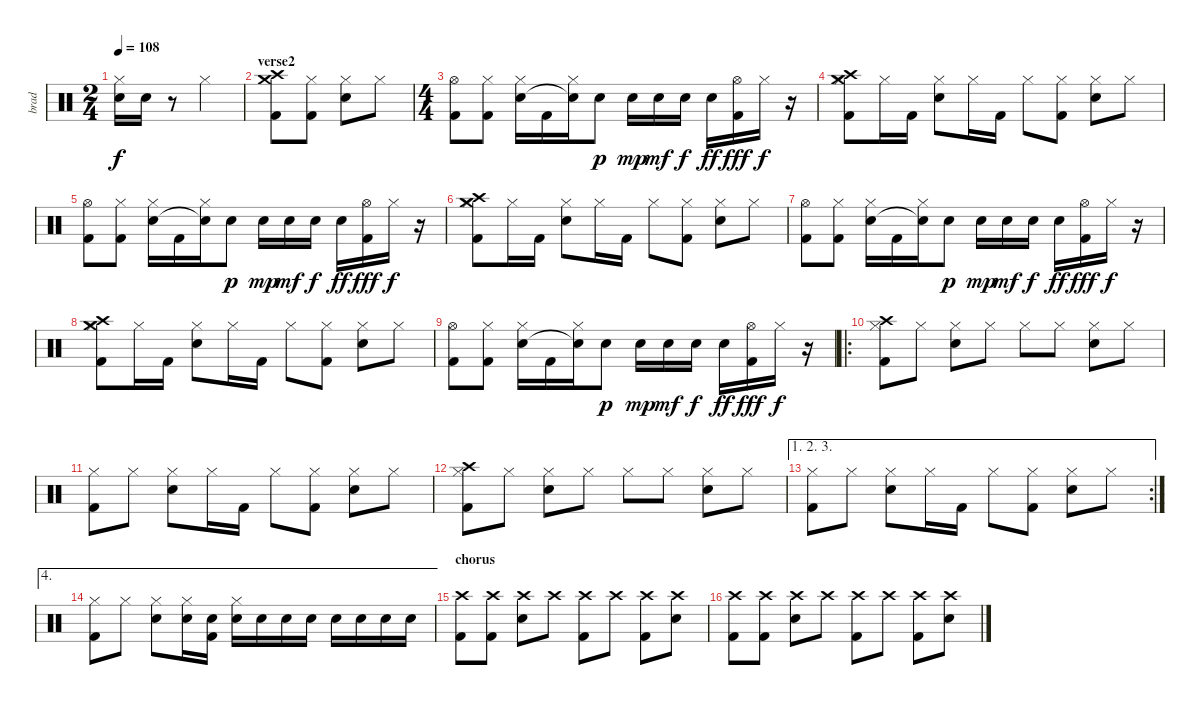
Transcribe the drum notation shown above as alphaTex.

\track ("brad" "brad") {instrument percussion}
\staff {score}
\articulation defaults
\ts (2 4)
\tempo 108
\clef neutral
\ks c
("Hi-Hat (closed)" "Electric Snare (hit)").16{dy f} "Electric Snare (hit)".16 r.8 "Hi-Hat (closed)".4 |
\section ("" "verse2")
("Crash high (hit)" "Crash medium (hit)" "Kick (hit) 2").8 ("Hi-Hat (closed)" "Kick (hit) 2").8 ("Hi-Hat (closed)" "Electric Snare (hit)").8 "Hi-Hat (closed)".8 |
\ts (4 4)
("Hi-Hat (open)" "Kick (hit) 2").8 ("Hi-Hat (closed)" "Kick (hit) 2").8 ("Hi-Hat (closed)" "Electric Snare (hit)").16 "Kick (hit) 2".16 ("Hi-Hat (closed)" "Snare (hit)"{t}).16 "Electric Snare (hit)".8{dy p} "Electric Snare (hit)".16{dy mp} "Electric Snare (hit)".16{dy mf} "Electric Snare (hit)".16{dy f} "Electric Snare (hit)".16{dy ff} ("Hi-Hat (open)" "Kick (hit) 2").16{dy fff} "Hi-Hat (closed)".16{dy f} r.16 |
("Crash medium (hit)" "Crash high (hit)" "Hi-Hat (closed)" "Kick (hit) 2").8 "Hi-Hat (closed)".16 "Kick (hit) 2".16 ("Hi-Hat (closed)" "Electric Snare (hit)").8 "Hi-Hat (closed)".16 "Kick (hit) 2".16 "Hi-Hat (closed)".8 ("Hi-Hat (closed)" "Kick (hit) 2").8 ("Hi-Hat (closed)" "Electric Snare (hit)").8 "Hi-Hat (closed)".8 |
("Hi-Hat (open)" "Kick (hit) 2").8 ("Hi-Hat (closed)" "Kick (hit) 2").8 ("Hi-Hat (closed)" "Electric Snare (hit)").16 "Kick (hit) 2".16 ("Hi-Hat (closed)" "Snare (hit)"{t}).16 "Electric Snare (hit)".8{dy p} "Electric Snare (hit)".16{dy mp} "Electric Snare (hit)".16{dy mf} "Electric Snare (hit)".16{dy f} "Electric Snare (hit)".16{dy ff} ("Hi-Hat (open)" "Kick (hit) 2").16{dy fff} "Hi-Hat (closed)".16{dy f} r.16 |
("Crash medium (hit)" "Crash high (hit)" "Hi-Hat (closed)" "Kick (hit) 2").8 "Hi-Hat (closed)".16 "Kick (hit) 2".16 ("Hi-Hat (closed)" "Electric Snare (hit)").8 "Hi-Hat (closed)".16 "Kick (hit) 2".16 "Hi-Hat (closed)".8 ("Hi-Hat (closed)" "Kick (hit) 2").8 ("Hi-Hat (closed)" "Electric Snare (hit)").8 "Hi-Hat (closed)".8 |
("Hi-Hat (open)" "Kick (hit) 2").8 ("Hi-Hat (closed)" "Kick (hit) 2").8 ("Hi-Hat (closed)" "Electric Snare (hit)").16 "Kick (hit) 2".16 ("Hi-Hat (closed)" "Snare (hit)"{t}).16 "Electric Snare (hit)".8{dy p} "Electric Snare (hit)".16{dy mp} "Electric Snare (hit)".16{dy mf} "Electric Snare (hit)".16{dy f} "Electric Snare (hit)".16{dy ff} ("Hi-Hat (open)" "Kick (hit) 2").16{dy fff} "Hi-Hat (closed)".16{dy f} r.16 |
("Crash medium (hit)" "Crash high (hit)" "Hi-Hat (closed)" "Kick (hit) 2").8 "Hi-Hat (closed)".16 "Kick (hit) 2".16 ("Hi-Hat (closed)" "Electric Snare (hit)").8 "Hi-Hat (closed)".16 "Kick (hit) 2".16 "Hi-Hat (closed)".8 ("Hi-Hat (closed)" "Kick (hit) 2").8 ("Hi-Hat (closed)" "Electric Snare (hit)").8 "Hi-Hat (closed)".8 |
("Hi-Hat (open)" "Kick (hit) 2").8 ("Hi-Hat (closed)" "Kick (hit) 2").8 ("Hi-Hat (closed)" "Electric Snare (hit)").16 "Kick (hit) 2".16 ("Hi-Hat (closed)" "Snare (hit)"{t}).16 "Electric Snare (hit)".8{dy p} "Electric Snare (hit)".16{dy mp} "Electric Snare (hit)".16{dy mf} "Electric Snare (hit)".16{dy f} "Electric Snare (hit)".16{dy ff} ("Hi-Hat (open)" "Kick (hit) 2").16{dy fff} "Hi-Hat (closed)".16{dy f} r.16 |
\ro
("Crash high (hit)" "Hi-Hat (closed)" "Kick (hit) 2").8 "Hi-Hat (closed)".8 ("Hi-Hat (closed)" "Electric Snare (hit)").8 "Hi-Hat (closed)".8 "Hi-Hat (closed)".8 "Hi-Hat (closed)".8 ("Hi-Hat (closed)" "Electric Snare (hit)").8 "Hi-Hat (closed)".8 |
("Hi-Hat (closed)" "Kick (hit) 2").8 "Hi-Hat (closed)".8 ("Hi-Hat (closed)" "Electric Snare (hit)").8 "Hi-Hat (closed)".16 "Kick (hit) 2".16 "Hi-Hat (closed)".8 ("Hi-Hat (closed)" "Kick (hit) 2").8 ("Hi-Hat (closed)" "Electric Snare (hit)").8 "Hi-Hat (closed)".8 |
("Crash high (hit)" "Hi-Hat (closed)" "Kick (hit) 2").8 "Hi-Hat (closed)".8 ("Hi-Hat (closed)" "Electric Snare (hit)").8 "Hi-Hat (closed)".8 "Hi-Hat (closed)".8 "Hi-Hat (closed)".8 ("Hi-Hat (closed)" "Electric Snare (hit)").8 "Hi-Hat (closed)".8 |
\ae (1 2 3)
\rc 2
("Hi-Hat (closed)" "Kick (hit) 2").8 "Hi-Hat (closed)".8 ("Hi-Hat (closed)" "Electric Snare (hit)").8 "Hi-Hat (closed)".16 "Kick (hit) 2".16 "Hi-Hat (closed)".8 ("Hi-Hat (closed)" "Kick (hit) 2").8 ("Hi-Hat (closed)" "Electric Snare (hit)").8 "Hi-Hat (closed)".8 |
\ae 4
("Hi-Hat (closed)" "Kick (hit) 2").8 "Hi-Hat (closed)".8 ("Hi-Hat (closed)" "Electric Snare (hit)").8 ("Hi-Hat (closed)" "Electric Snare (hit)").16 ("Electric Snare (hit)" "Kick (hit) 2").16 ("Hi-Hat (closed)" "Electric Snare (hit)").16 "Electric Snare (hit)".16 "Electric Snare (hit)".16 "Electric Snare (hit)".16 "Electric Snare (hit)".16 "Electric Snare (hit)".16 "Electric Snare (hit)".16 "Electric Snare (hit)".16 |
\section ("" "chorus")
("Crash high (hit)" "Kick (hit) 2").8 ("Crash high (hit)" "Kick (hit) 2").8 ("Crash high (hit)" "Electric Snare (hit)").8 "Crash high (hit)".8 ("Crash high (hit)" "Kick (hit) 2").8 "Crash high (hit)".8 ("Crash high (hit)" "Kick (hit) 2").8 ("Crash high (hit)" "Electric Snare (hit)").8 |
("Crash high (hit)" "Kick (hit) 2").8 ("Crash high (hit)" "Kick (hit) 2").8 ("Crash high (hit)" "Electric Snare (hit)").8 "Crash high (hit)".8 ("Crash high (hit)" "Kick (hit) 2").8 "Crash high (hit)".8 ("Crash high (hit)" "Kick (hit) 2").8 ("Crash high (hit)" "Electric Snare (hit)").8
